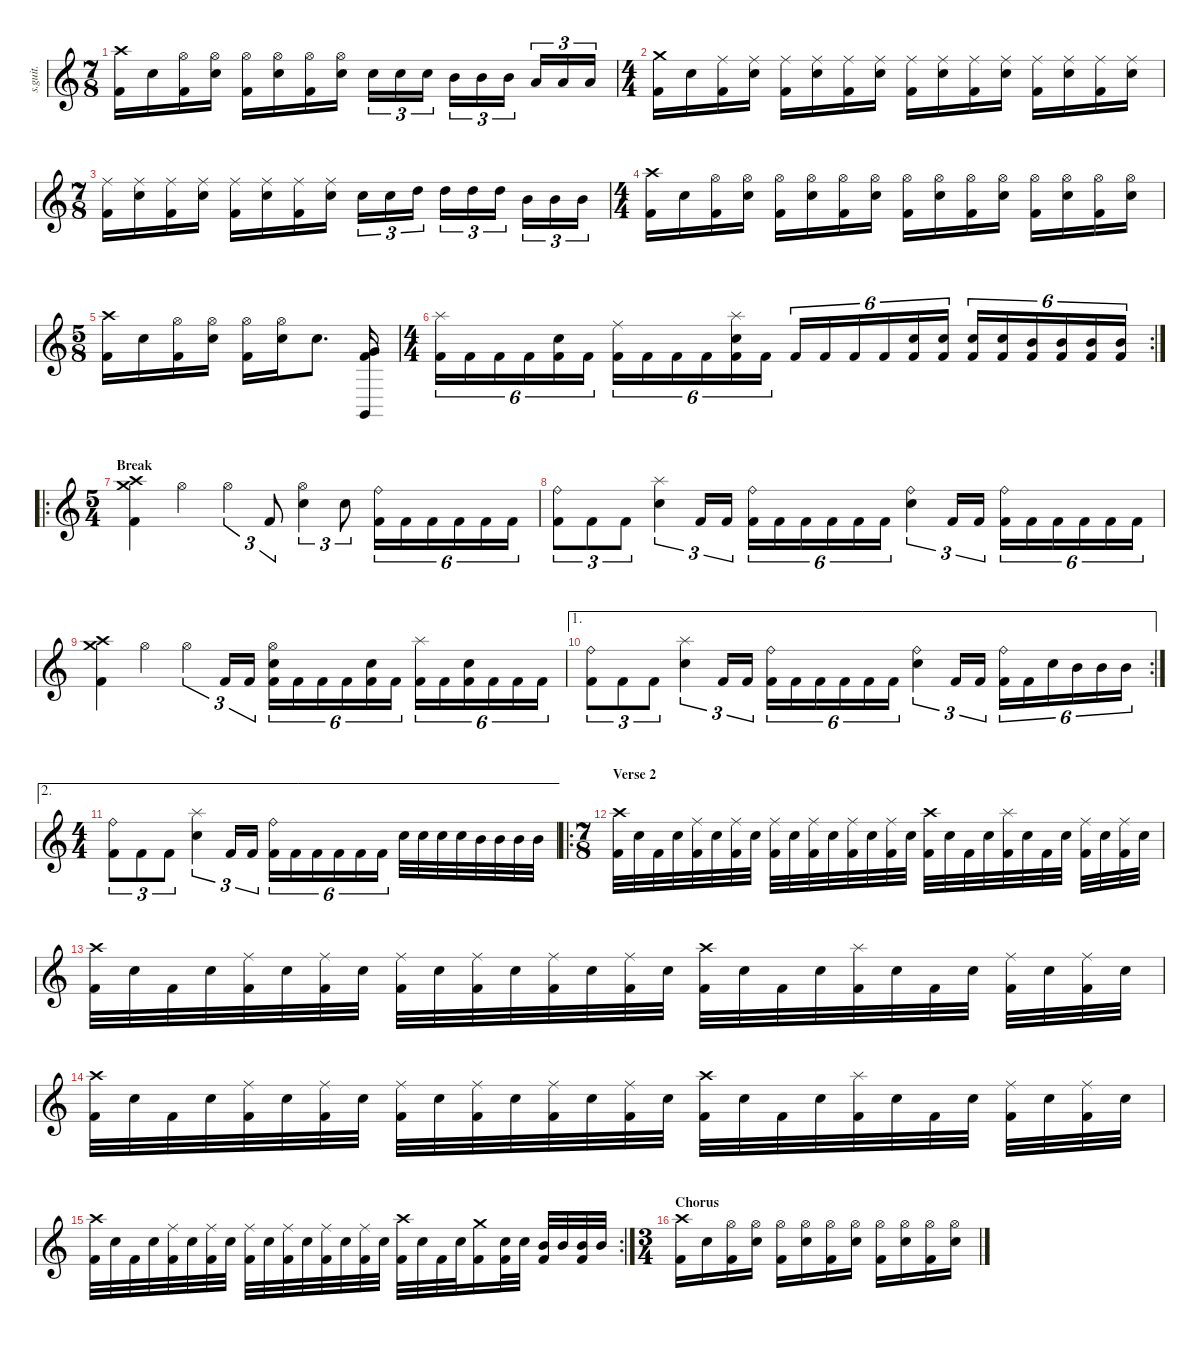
\defaultSystemsLayout 4
\hideDynamics
\bracketExtendMode nobrackets
\track ("Percussion" "s.guit.") {instrument percussion}
\staff {score}
\articulation defaults
\ts (7 8)
\beaming (8 2 2 2 2)
\tempo (120 hide)
\clef g2
\ks c
("Kick (hit) 2" "Crash high (hit)").16{lyrics (0 "") lyrics (1 "") lyrics (2 "") lyrics (3 "") lyrics (4 "") dy f} "Snare (hit) 2".16{lyrics (0 "") lyrics (1 "") lyrics (2 "") lyrics (3 "") lyrics (4 "")} ("Hi-Hat (open)" "Kick (hit) 2").16{lyrics (0 "") lyrics (1 "") lyrics (2 "") lyrics (3 "") lyrics (4 "")} ("Hi-Hat (open)" "Snare (hit) 2").16{lyrics (0 "") lyrics (1 "") lyrics (2 "") lyrics (3 "") lyrics (4 "")} ("Hi-Hat (open)" "Kick (hit) 2").16{lyrics (0 "") lyrics (1 "") lyrics (2 "") lyrics (3 "") lyrics (4 "")} ("Hi-Hat (open)" "Snare (hit) 2").16{lyrics (0 "") lyrics (1 "") lyrics (2 "") lyrics (3 "") lyrics (4 "")} ("Hi-Hat (open)" "Kick (hit) 2").16{lyrics (0 "") lyrics (1 "") lyrics (2 "") lyrics (3 "") lyrics (4 "")} ("Hi-Hat (open)" "Snare (hit) 2").16{lyrics (0 "") lyrics (1 "") lyrics (2 "") lyrics (3 "") lyrics (4 "")} "Snare (hit) 2".16{tu (3 2) lyrics (0 "") lyrics (1 "") lyrics (2 "") lyrics (3 "") lyrics (4 "")} "Snare (hit) 2".16{tu (3 2) lyrics (0 "") lyrics (1 "") lyrics (2 "") lyrics (3 "") lyrics (4 "")} "Snare (hit) 2".16{tu (3 2) lyrics (0 "") lyrics (1 "") lyrics (2 "") lyrics (3 "") lyrics (4 "")} "Mid Tom (hit)".16{tu (3 2) lyrics (0 "") lyrics (1 "") lyrics (2 "") lyrics (3 "") lyrics (4 "")} "Mid Tom (hit)".16{tu (3 2) lyrics (0 "") lyrics (1 "") lyrics (2 "") lyrics (3 "") lyrics (4 "")} "Mid Tom (hit)".16{tu (3 2) lyrics (0 "") lyrics (1 "") lyrics (2 "") lyrics (3 "") lyrics (4 "")} "Low Floor Tom (hit)".16{tu (3 2) lyrics (0 "") lyrics (1 "") lyrics (2 "") lyrics (3 "") lyrics (4 "")} "Low Floor Tom (hit)".16{tu (3 2) lyrics (0 "") lyrics (1 "") lyrics (2 "") lyrics (3 "") lyrics (4 "")} "Low Floor Tom (hit)".16{tu (3 2) lyrics (0 "") lyrics (1 "") lyrics (2 "") lyrics (3 "") lyrics (4 "")} |
\ts (4 4)
\beaming (8 2 2 2 2)
("Crash medium (hit)" "Kick (hit) 2").16{lyrics (0 "") lyrics (1 "") lyrics (2 "") lyrics (3 "") lyrics (4 "")} "Snare (hit) 2".16{lyrics (0 "") lyrics (1 "") lyrics (2 "") lyrics (3 "") lyrics (4 "")} ("Ride (middle)" "Kick (hit) 2").16{lyrics (0 "") lyrics (1 "") lyrics (2 "") lyrics (3 "") lyrics (4 "")} ("Ride (middle)" "Snare (hit) 2").16{lyrics (0 "") lyrics (1 "") lyrics (2 "") lyrics (3 "") lyrics (4 "")} ("Ride (middle)" "Kick (hit) 2").16{lyrics (0 "") lyrics (1 "") lyrics (2 "") lyrics (3 "") lyrics (4 "")} ("Snare (hit) 2" "Ride (middle)").16{lyrics (0 "") lyrics (1 "") lyrics (2 "") lyrics (3 "") lyrics (4 "")} ("Ride (middle)" "Kick (hit) 2").16{lyrics (0 "") lyrics (1 "") lyrics (2 "") lyrics (3 "") lyrics (4 "")} ("Ride (middle)" "Snare (hit) 2").16{lyrics (0 "") lyrics (1 "") lyrics (2 "") lyrics (3 "") lyrics (4 "")} ("Ride (middle)" "Kick (hit) 2").16{lyrics (0 "") lyrics (1 "") lyrics (2 "") lyrics (3 "") lyrics (4 "")} ("Ride (middle)" "Snare (hit) 2").16{lyrics (0 "") lyrics (1 "") lyrics (2 "") lyrics (3 "") lyrics (4 "")} ("Ride (middle)" "Kick (hit) 2").16{lyrics (0 "") lyrics (1 "") lyrics (2 "") lyrics (3 "") lyrics (4 "")} ("Ride (middle)" "Snare (hit) 2").16{lyrics (0 "") lyrics (1 "") lyrics (2 "") lyrics (3 "") lyrics (4 "")} ("Ride (middle)" "Kick (hit) 2").16{lyrics (0 "") lyrics (1 "") lyrics (2 "") lyrics (3 "") lyrics (4 "")} ("Ride (middle)" "Snare (hit) 2").16{lyrics (0 "") lyrics (1 "") lyrics (2 "") lyrics (3 "") lyrics (4 "")} ("Ride (middle)" "Kick (hit) 2").16{lyrics (0 "") lyrics (1 "") lyrics (2 "") lyrics (3 "") lyrics (4 "")} ("Ride (middle)" "Snare (hit) 2").16{lyrics (0 "") lyrics (1 "") lyrics (2 "") lyrics (3 "") lyrics (4 "")} |
\ts (7 8)
\beaming (8 2 2 2 2)
("Ride (middle)" "Kick (hit) 2").16{lyrics (0 "") lyrics (1 "") lyrics (2 "") lyrics (3 "") lyrics (4 "")} ("Ride (middle)" "Snare (hit) 2").16{lyrics (0 "") lyrics (1 "") lyrics (2 "") lyrics (3 "") lyrics (4 "")} ("Ride (middle)" "Kick (hit) 2").16{lyrics (0 "") lyrics (1 "") lyrics (2 "") lyrics (3 "") lyrics (4 "")} ("Ride (middle)" "Snare (hit) 2").16{lyrics (0 "") lyrics (1 "") lyrics (2 "") lyrics (3 "") lyrics (4 "")} ("Kick (hit) 2" "Ride (middle)").16{lyrics (0 "") lyrics (1 "") lyrics (2 "") lyrics (3 "") lyrics (4 "")} ("Ride (middle)" "Snare (hit) 2").16{lyrics (0 "") lyrics (1 "") lyrics (2 "") lyrics (3 "") lyrics (4 "")} ("Ride (middle)" "Kick (hit) 2").16{lyrics (0 "") lyrics (1 "") lyrics (2 "") lyrics (3 "") lyrics (4 "")} ("Ride (middle)" "Snare (hit) 2").16{lyrics (0 "") lyrics (1 "") lyrics (2 "") lyrics (3 "") lyrics (4 "")} "Snare (hit) 2".16{tu (3 2) lyrics (0 "") lyrics (1 "") lyrics (2 "") lyrics (3 "") lyrics (4 "")} "Snare (hit) 2".16{tu (3 2) lyrics (0 "") lyrics (1 "") lyrics (2 "") lyrics (3 "") lyrics (4 "")} "High Tom (hit)".16{tu (3 2) lyrics (0 "") lyrics (1 "") lyrics (2 "") lyrics (3 "") lyrics (4 "")} "High Tom (hit)".16{tu (3 2) lyrics (0 "") lyrics (1 "") lyrics (2 "") lyrics (3 "") lyrics (4 "")} "High Tom (hit)".16{tu (3 2) lyrics (0 "") lyrics (1 "") lyrics (2 "") lyrics (3 "") lyrics (4 "")} "High Tom (hit)".16{tu (3 2) lyrics (0 "") lyrics (1 "") lyrics (2 "") lyrics (3 "") lyrics (4 "")} "Mid Tom (hit)".16{tu (3 2) lyrics (0 "") lyrics (1 "") lyrics (2 "") lyrics (3 "") lyrics (4 "")} "Mid Tom (hit)".16{tu (3 2) lyrics (0 "") lyrics (1 "") lyrics (2 "") lyrics (3 "") lyrics (4 "")} "Mid Tom (hit)".16{tu (3 2) lyrics (0 "") lyrics (1 "") lyrics (2 "") lyrics (3 "") lyrics (4 "")} |
\ts (4 4)
\beaming (8 2 2 2 2)
("Kick (hit) 2" "Crash high (hit)").16{lyrics (0 "") lyrics (1 "") lyrics (2 "") lyrics (3 "") lyrics (4 "")} "Snare (hit) 2".16{lyrics (0 "") lyrics (1 "") lyrics (2 "") lyrics (3 "") lyrics (4 "")} ("Hi-Hat (open)" "Kick (hit) 2").16{lyrics (0 "") lyrics (1 "") lyrics (2 "") lyrics (3 "") lyrics (4 "")} ("Hi-Hat (open)" "Snare (hit) 2").16{lyrics (0 "") lyrics (1 "") lyrics (2 "") lyrics (3 "") lyrics (4 "")} ("Hi-Hat (open)" "Kick (hit) 2").16{lyrics (0 "") lyrics (1 "") lyrics (2 "") lyrics (3 "") lyrics (4 "")} ("Hi-Hat (open)" "Snare (hit) 2").16{lyrics (0 "") lyrics (1 "") lyrics (2 "") lyrics (3 "") lyrics (4 "")} ("Hi-Hat (open)" "Kick (hit) 2").16{lyrics (0 "") lyrics (1 "") lyrics (2 "") lyrics (3 "") lyrics (4 "")} ("Hi-Hat (open)" "Snare (hit) 2").16{lyrics (0 "") lyrics (1 "") lyrics (2 "") lyrics (3 "") lyrics (4 "")} ("Hi-Hat (open)" "Kick (hit) 2").16{lyrics (0 "") lyrics (1 "") lyrics (2 "") lyrics (3 "") lyrics (4 "")} ("Hi-Hat (open)" "Snare (hit) 2").16{lyrics (0 "") lyrics (1 "") lyrics (2 "") lyrics (3 "") lyrics (4 "")} ("Hi-Hat (open)" "Kick (hit) 2").16{lyrics (0 "") lyrics (1 "") lyrics (2 "") lyrics (3 "") lyrics (4 "")} ("Hi-Hat (open)" "Snare (hit) 2").16{lyrics (0 "") lyrics (1 "") lyrics (2 "") lyrics (3 "") lyrics (4 "")} ("Hi-Hat (open)" "Kick (hit) 2").16{lyrics (0 "") lyrics (1 "") lyrics (2 "") lyrics (3 "") lyrics (4 "")} ("Hi-Hat (open)" "Snare (hit) 2").16{lyrics (0 "") lyrics (1 "") lyrics (2 "") lyrics (3 "") lyrics (4 "")} ("Hi-Hat (open)" "Kick (hit) 2").16{lyrics (0 "") lyrics (1 "") lyrics (2 "") lyrics (3 "") lyrics (4 "")} ("Hi-Hat (open)" "Snare (hit) 2").16{lyrics (0 "") lyrics (1 "") lyrics (2 "") lyrics (3 "") lyrics (4 "")} |
\ts (5 8)
\beaming (8 2 2 2 2)
("Kick (hit) 2" "Crash high (hit)").16{lyrics (0 "") lyrics (1 "") lyrics (2 "") lyrics (3 "") lyrics (4 "")} "Snare (hit) 2".16{lyrics (0 "") lyrics (1 "") lyrics (2 "") lyrics (3 "") lyrics (4 "")} ("Hi-Hat (open)" "Kick (hit) 2").16{lyrics (0 "") lyrics (1 "") lyrics (2 "") lyrics (3 "") lyrics (4 "")} ("Hi-Hat (open)" "Snare (hit) 2").16{lyrics (0 "") lyrics (1 "") lyrics (2 "") lyrics (3 "") lyrics (4 "")} ("Hi-Hat (open)" "Kick (hit) 2").16{lyrics (0 "") lyrics (1 "") lyrics (2 "") lyrics (3 "") lyrics (4 "")} ("Hi-Hat (open)" "Snare (hit) 2").16{lyrics (0 "") lyrics (1 "") lyrics (2 "") lyrics (3 "") lyrics (4 "")} "Snare (hit) 2".8{d lyrics (0 "") lyrics (1 "") lyrics (2 "") lyrics (3 "") lyrics (4 "")} ("Very Low Tom (hit)" "Claves (hit)" "Kick (hit) 2").16{lyrics (0 "") lyrics (1 "") lyrics (2 "") lyrics (3 "") lyrics (4 "")} |
\rc 2
\ts (4 4)
\beaming (8 2 2 2 2)
("Splash (hit)" "Kick (hit) 2").16{tu (6 4) lyrics (0 "") lyrics (1 "") lyrics (2 "") lyrics (3 "") lyrics (4 "")} "Kick (hit) 2".16{tu (6 4) lyrics (0 "") lyrics (1 "") lyrics (2 "") lyrics (3 "") lyrics (4 "")} "Kick (hit) 2".16{tu (6 4) lyrics (0 "") lyrics (1 "") lyrics (2 "") lyrics (3 "") lyrics (4 "")} "Kick (hit) 2".16{tu (6 4) lyrics (0 "") lyrics (1 "") lyrics (2 "") lyrics (3 "") lyrics (4 "")} ("Snare (hit) 2" "Kick (hit) 2").16{tu (6 4) lyrics (0 "") lyrics (1 "") lyrics (2 "") lyrics (3 "") lyrics (4 "")} "Kick (hit) 2".16{tu (6 4) lyrics (0 "") lyrics (1 "") lyrics (2 "") lyrics (3 "") lyrics (4 "")} ("Ride (middle)" "Kick (hit) 2").16{tu (6 4) lyrics (0 "") lyrics (1 "") lyrics (2 "") lyrics (3 "") lyrics (4 "")} "Kick (hit) 2".16{tu (6 4) lyrics (0 "") lyrics (1 "") lyrics (2 "") lyrics (3 "") lyrics (4 "")} "Kick (hit) 2".16{tu (6 4) lyrics (0 "") lyrics (1 "") lyrics (2 "") lyrics (3 "") lyrics (4 "")} "Kick (hit) 2".16{tu (6 4) lyrics (0 "") lyrics (1 "") lyrics (2 "") lyrics (3 "") lyrics (4 "")} ("Splash (hit)" "Snare (hit) 2" "Kick (hit) 2").16{tu (6 4) lyrics (0 "") lyrics (1 "") lyrics (2 "") lyrics (3 "") lyrics (4 "")} "Kick (hit) 2".16{tu (6 4) lyrics (0 "") lyrics (1 "") lyrics (2 "") lyrics (3 "") lyrics (4 "")} "Kick (hit) 2".16{tu (6 4) lyrics (0 "") lyrics (1 "") lyrics (2 "") lyrics (3 "") lyrics (4 "")} "Kick (hit) 2".16{tu (6 4) lyrics (0 "") lyrics (1 "") lyrics (2 "") lyrics (3 "") lyrics (4 "")} "Kick (hit) 2".16{tu (6 4) lyrics (0 "") lyrics (1 "") lyrics (2 "") lyrics (3 "") lyrics (4 "")} "Kick (hit) 2".16{tu (6 4) lyrics (0 "") lyrics (1 "") lyrics (2 "") lyrics (3 "") lyrics (4 "")} ("Snare (hit) 2" "Kick (hit) 2").16{tu (6 4) lyrics (0 "") lyrics (1 "") lyrics (2 "") lyrics (3 "") lyrics (4 "")} ("Snare (hit) 2" "Kick (hit) 2").16{tu (6 4) lyrics (0 "") lyrics (1 "") lyrics (2 "") lyrics (3 "") lyrics (4 "")} ("Snare (hit) 2" "Kick (hit) 2").16{tu (6 4) lyrics (0 "") lyrics (1 "") lyrics (2 "") lyrics (3 "") lyrics (4 "")} ("Snare (hit) 2" "Kick (hit) 2").16{tu (6 4) lyrics (0 "") lyrics (1 "") lyrics (2 "") lyrics (3 "") lyrics (4 "")} ("Mid Tom (hit)" "Kick (hit) 2").16{tu (6 4) lyrics (0 "") lyrics (1 "") lyrics (2 "") lyrics (3 "") lyrics (4 "")} ("Mid Tom (hit)" "Kick (hit) 2").16{tu (6 4) lyrics (0 "") lyrics (1 "") lyrics (2 "") lyrics (3 "") lyrics (4 "")} ("Mid Tom (hit)" "Kick (hit) 2").16{tu (6 4) lyrics (0 "") lyrics (1 "") lyrics (2 "") lyrics (3 "") lyrics (4 "")} ("Mid Tom (hit)" "Kick (hit) 2").16{tu (6 4) lyrics (0 "") lyrics (1 "") lyrics (2 "") lyrics (3 "") lyrics (4 "")} |
\ro
\ts (5 4)
\beaming (8 2 2 2 2)
\section ("" "Break")
("Crash high (hit)" "Crash medium (hit)" "Kick (hit) 2").4{lyrics (0 "") lyrics (1 "") lyrics (2 "") lyrics (3 "") lyrics (4 "")} "Hi-Hat (open)".4{lyrics (0 "") lyrics (1 "") lyrics (2 "") lyrics (3 "") lyrics (4 "")} "Hi-Hat (open)".4{tu (3 2) lyrics (0 "") lyrics (1 "") lyrics (2 "") lyrics (3 "") lyrics (4 "")} "Kick (hit) 2".8{tu (3 2) lyrics (0 "") lyrics (1 "") lyrics (2 "") lyrics (3 "") lyrics (4 "")} ("Snare (hit) 2" "Hi-Hat (open)").4{tu (3 2) lyrics (0 "") lyrics (1 "") lyrics (2 "") lyrics (3 "") lyrics (4 "")} "Snare (hit) 2".8{tu (3 2) lyrics (0 "") lyrics (1 "") lyrics (2 "") lyrics (3 "") lyrics (4 "")} ("Ride (bell)" "Kick (hit) 2").16{tu (6 4) lyrics (0 "") lyrics (1 "") lyrics (2 "") lyrics (3 "") lyrics (4 "")} "Kick (hit) 2".16{tu (6 4) lyrics (0 "") lyrics (1 "") lyrics (2 "") lyrics (3 "") lyrics (4 "")} "Kick (hit) 2".16{tu (6 4) lyrics (0 "") lyrics (1 "") lyrics (2 "") lyrics (3 "") lyrics (4 "")} "Kick (hit) 2".16{tu (6 4) lyrics (0 "") lyrics (1 "") lyrics (2 "") lyrics (3 "") lyrics (4 "")} "Kick (hit) 2".16{tu (6 4) lyrics (0 "") lyrics (1 "") lyrics (2 "") lyrics (3 "") lyrics (4 "")} "Kick (hit) 2".16{tu (6 4) lyrics (0 "") lyrics (1 "") lyrics (2 "") lyrics (3 "") lyrics (4 "")} |
("Ride (bell)" "Kick (hit) 2").8{tu (3 2) lyrics (0 "") lyrics (1 "") lyrics (2 "") lyrics (3 "") lyrics (4 "")} "Kick (hit) 2".8{tu (3 2) lyrics (0 "") lyrics (1 "") lyrics (2 "") lyrics (3 "") lyrics (4 "")} "Kick (hit) 2".8{tu (3 2) lyrics (0 "") lyrics (1 "") lyrics (2 "") lyrics (3 "") lyrics (4 "")} ("Splash (hit)" "Snare (hit) 2").4{tu (3 2) lyrics (0 "") lyrics (1 "") lyrics (2 "") lyrics (3 "") lyrics (4 "")} "Kick (hit) 2".16{tu (3 2) lyrics (0 "") lyrics (1 "") lyrics (2 "") lyrics (3 "") lyrics (4 "")} "Kick (hit) 2".16{tu (3 2) lyrics (0 "") lyrics (1 "") lyrics (2 "") lyrics (3 "") lyrics (4 "")} ("Ride (bell)" "Kick (hit) 2").16{tu (6 4) lyrics (0 "") lyrics (1 "") lyrics (2 "") lyrics (3 "") lyrics (4 "")} "Kick (hit) 2".16{tu (6 4) lyrics (0 "") lyrics (1 "") lyrics (2 "") lyrics (3 "") lyrics (4 "")} "Kick (hit) 2".16{tu (6 4) lyrics (0 "") lyrics (1 "") lyrics (2 "") lyrics (3 "") lyrics (4 "")} "Kick (hit) 2".16{tu (6 4) lyrics (0 "") lyrics (1 "") lyrics (2 "") lyrics (3 "") lyrics (4 "")} "Kick (hit) 2".16{tu (6 4) lyrics (0 "") lyrics (1 "") lyrics (2 "") lyrics (3 "") lyrics (4 "")} "Kick (hit) 2".16{tu (6 4) lyrics (0 "") lyrics (1 "") lyrics (2 "") lyrics (3 "") lyrics (4 "")} ("Ride (bell)" "Snare (hit) 2").4{tu (3 2) lyrics (0 "") lyrics (1 "") lyrics (2 "") lyrics (3 "") lyrics (4 "")} "Kick (hit) 2".16{tu (3 2) lyrics (0 "") lyrics (1 "") lyrics (2 "") lyrics (3 "") lyrics (4 "")} "Kick (hit) 2".16{tu (3 2) lyrics (0 "") lyrics (1 "") lyrics (2 "") lyrics (3 "") lyrics (4 "")} ("Ride (bell)" "Kick (hit) 2").16{tu (6 4) lyrics (0 "") lyrics (1 "") lyrics (2 "") lyrics (3 "") lyrics (4 "")} "Kick (hit) 2".16{tu (6 4) lyrics (0 "") lyrics (1 "") lyrics (2 "") lyrics (3 "") lyrics (4 "")} "Kick (hit) 2".16{tu (6 4) lyrics (0 "") lyrics (1 "") lyrics (2 "") lyrics (3 "") lyrics (4 "")} "Kick (hit) 2".16{tu (6 4) lyrics (0 "") lyrics (1 "") lyrics (2 "") lyrics (3 "") lyrics (4 "")} "Kick (hit) 2".16{tu (6 4) lyrics (0 "") lyrics (1 "") lyrics (2 "") lyrics (3 "") lyrics (4 "")} "Kick (hit) 2".16{tu (6 4) lyrics (0 "") lyrics (1 "") lyrics (2 "") lyrics (3 "") lyrics (4 "")} |
("Crash high (hit)" "Crash medium (hit)" "Kick (hit) 2").4{lyrics (0 "") lyrics (1 "") lyrics (2 "") lyrics (3 "") lyrics (4 "")} "Hi-Hat (open)".4{lyrics (0 "") lyrics (1 "") lyrics (2 "") lyrics (3 "") lyrics (4 "")} "Hi-Hat (open)".4{tu (3 2) lyrics (0 "") lyrics (1 "") lyrics (2 "") lyrics (3 "") lyrics (4 "")} "Kick (hit) 2".16{tu (3 2) lyrics (0 "") lyrics (1 "") lyrics (2 "") lyrics (3 "") lyrics (4 "")} "Kick (hit) 2".16{tu (3 2) lyrics (0 "") lyrics (1 "") lyrics (2 "") lyrics (3 "") lyrics (4 "")} ("Hi-Hat (open)" "Snare (hit) 2" "Kick (hit) 2").16{tu (6 4) lyrics (0 "") lyrics (1 "") lyrics (2 "") lyrics (3 "") lyrics (4 "")} "Kick (hit) 2".16{tu (6 4) lyrics (0 "") lyrics (1 "") lyrics (2 "") lyrics (3 "") lyrics (4 "")} "Kick (hit) 2".16{tu (6 4) lyrics (0 "") lyrics (1 "") lyrics (2 "") lyrics (3 "") lyrics (4 "")} "Kick (hit) 2".16{tu (6 4) lyrics (0 "") lyrics (1 "") lyrics (2 "") lyrics (3 "") lyrics (4 "")} ("Snare (hit) 2" "Kick (hit) 2").16{tu (6 4) lyrics (0 "") lyrics (1 "") lyrics (2 "") lyrics (3 "") lyrics (4 "")} "Kick (hit) 2".16{tu (6 4) lyrics (0 "") lyrics (1 "") lyrics (2 "") lyrics (3 "") lyrics (4 "")} ("Splash (hit)" "Kick (hit) 2").16{tu (6 4) lyrics (0 "") lyrics (1 "") lyrics (2 "") lyrics (3 "") lyrics (4 "")} "Kick (hit) 2".16{tu (6 4) lyrics (0 "") lyrics (1 "") lyrics (2 "") lyrics (3 "") lyrics (4 "")} ("Snare (hit) 2" "Kick (hit) 2").16{tu (6 4) lyrics (0 "") lyrics (1 "") lyrics (2 "") lyrics (3 "") lyrics (4 "")} "Kick (hit) 2".16{tu (6 4) lyrics (0 "") lyrics (1 "") lyrics (2 "") lyrics (3 "") lyrics (4 "")} "Kick (hit) 2".16{tu (6 4) lyrics (0 "") lyrics (1 "") lyrics (2 "") lyrics (3 "") lyrics (4 "")} "Kick (hit) 2".16{tu (6 4) lyrics (0 "") lyrics (1 "") lyrics (2 "") lyrics (3 "") lyrics (4 "")} |
\ae 1
\rc 2
("Ride (bell)" "Kick (hit) 2").8{tu (3 2) lyrics (0 "") lyrics (1 "") lyrics (2 "") lyrics (3 "") lyrics (4 "")} "Kick (hit) 2".8{tu (3 2) lyrics (0 "") lyrics (1 "") lyrics (2 "") lyrics (3 "") lyrics (4 "")} "Kick (hit) 2".8{tu (3 2) lyrics (0 "") lyrics (1 "") lyrics (2 "") lyrics (3 "") lyrics (4 "")} ("Splash (hit)" "Snare (hit) 2").4{tu (3 2) lyrics (0 "") lyrics (1 "") lyrics (2 "") lyrics (3 "") lyrics (4 "")} "Kick (hit) 2".16{tu (3 2) lyrics (0 "") lyrics (1 "") lyrics (2 "") lyrics (3 "") lyrics (4 "")} "Kick (hit) 2".16{tu (3 2) lyrics (0 "") lyrics (1 "") lyrics (2 "") lyrics (3 "") lyrics (4 "")} ("Ride (bell)" "Kick (hit) 2").16{tu (6 4) lyrics (0 "") lyrics (1 "") lyrics (2 "") lyrics (3 "") lyrics (4 "")} "Kick (hit) 2".16{tu (6 4) lyrics (0 "") lyrics (1 "") lyrics (2 "") lyrics (3 "") lyrics (4 "")} "Kick (hit) 2".16{tu (6 4) lyrics (0 "") lyrics (1 "") lyrics (2 "") lyrics (3 "") lyrics (4 "")} "Kick (hit) 2".16{tu (6 4) lyrics (0 "") lyrics (1 "") lyrics (2 "") lyrics (3 "") lyrics (4 "")} "Kick (hit) 2".16{tu (6 4) lyrics (0 "") lyrics (1 "") lyrics (2 "") lyrics (3 "") lyrics (4 "")} "Kick (hit) 2".16{tu (6 4) lyrics (0 "") lyrics (1 "") lyrics (2 "") lyrics (3 "") lyrics (4 "")} ("Ride (bell)" "Snare (hit) 2").4{tu (3 2) lyrics (0 "") lyrics (1 "") lyrics (2 "") lyrics (3 "") lyrics (4 "")} "Kick (hit) 2".16{tu (3 2) lyrics (0 "") lyrics (1 "") lyrics (2 "") lyrics (3 "") lyrics (4 "")} "Kick (hit) 2".16{tu (3 2) lyrics (0 "") lyrics (1 "") lyrics (2 "") lyrics (3 "") lyrics (4 "")} ("Ride (bell)" "Kick (hit) 2").16{tu (6 4) lyrics (0 "") lyrics (1 "") lyrics (2 "") lyrics (3 "") lyrics (4 "")} "Kick (hit) 2".16{tu (6 4) lyrics (0 "") lyrics (1 "") lyrics (2 "") lyrics (3 "") lyrics (4 "")} "Snare (hit) 2".16{tu (6 4) lyrics (0 "") lyrics (1 "") lyrics (2 "") lyrics (3 "") lyrics (4 "")} "Mid Tom (hit)".16{tu (6 4) lyrics (0 "") lyrics (1 "") lyrics (2 "") lyrics (3 "") lyrics (4 "")} "Mid Tom (hit)".16{tu (6 4) lyrics (0 "") lyrics (1 "") lyrics (2 "") lyrics (3 "") lyrics (4 "")} "Mid Tom (hit)".16{tu (6 4) lyrics (0 "") lyrics (1 "") lyrics (2 "") lyrics (3 "") lyrics (4 "")} |
\ae 2
\ts (4 4)
\beaming (8 2 2 2 2)
("Ride (bell)" "Kick (hit) 2").8{tu (3 2) lyrics (0 "") lyrics (1 "") lyrics (2 "") lyrics (3 "") lyrics (4 "")} "Kick (hit) 2".8{tu (3 2) lyrics (0 "") lyrics (1 "") lyrics (2 "") lyrics (3 "") lyrics (4 "")} "Kick (hit) 2".8{tu (3 2) lyrics (0 "") lyrics (1 "") lyrics (2 "") lyrics (3 "") lyrics (4 "")} ("Splash (hit)" "Snare (hit) 2").4{tu (3 2) lyrics (0 "") lyrics (1 "") lyrics (2 "") lyrics (3 "") lyrics (4 "")} "Kick (hit) 2".16{tu (3 2) lyrics (0 "") lyrics (1 "") lyrics (2 "") lyrics (3 "") lyrics (4 "")} "Kick (hit) 2".16{tu (3 2) lyrics (0 "") lyrics (1 "") lyrics (2 "") lyrics (3 "") lyrics (4 "")} ("Ride (bell)" "Kick (hit) 2").16{tu (6 4) lyrics (0 "") lyrics (1 "") lyrics (2 "") lyrics (3 "") lyrics (4 "")} "Kick (hit) 2".16{tu (6 4) lyrics (0 "") lyrics (1 "") lyrics (2 "") lyrics (3 "") lyrics (4 "")} "Kick (hit) 2".16{tu (6 4) lyrics (0 "") lyrics (1 "") lyrics (2 "") lyrics (3 "") lyrics (4 "")} "Kick (hit) 2".16{tu (6 4) lyrics (0 "") lyrics (1 "") lyrics (2 "") lyrics (3 "") lyrics (4 "")} "Kick (hit) 2".16{tu (6 4) lyrics (0 "") lyrics (1 "") lyrics (2 "") lyrics (3 "") lyrics (4 "")} "Kick (hit) 2".16{tu (6 4) lyrics (0 "") lyrics (1 "") lyrics (2 "") lyrics (3 "") lyrics (4 "")} "Snare (hit) 2".32{lyrics (0 "") lyrics (1 "") lyrics (2 "") lyrics (3 "") lyrics (4 "")} "Snare (hit) 2".32{lyrics (0 "") lyrics (1 "") lyrics (2 "") lyrics (3 "") lyrics (4 "")} "Snare (hit) 2".32{lyrics (0 "") lyrics (1 "") lyrics (2 "") lyrics (3 "") lyrics (4 "")} "Snare (hit) 2".32{lyrics (0 "") lyrics (1 "") lyrics (2 "") lyrics (3 "") lyrics (4 "")} "Mid Tom (hit)".32{lyrics (0 "") lyrics (1 "") lyrics (2 "") lyrics (3 "") lyrics (4 "")} "Mid Tom (hit)".32{lyrics (0 "") lyrics (1 "") lyrics (2 "") lyrics (3 "") lyrics (4 "")} "Mid Tom (hit)".32{lyrics (0 "") lyrics (1 "") lyrics (2 "") lyrics (3 "") lyrics (4 "")} "Mid Tom (hit)".32{lyrics (0 "") lyrics (1 "") lyrics (2 "") lyrics (3 "") lyrics (4 "")} |
\ro
\ts (7 8)
\beaming (8 2 2 2 2)
\section ("" "Verse 2")
("Kick (hit) 2" "Crash high (hit)").32{lyrics (0 "") lyrics (1 "") lyrics (2 "") lyrics (3 "") lyrics (4 "")} "Snare (hit) 2".32{lyrics (0 "") lyrics (1 "") lyrics (2 "") lyrics (3 "") lyrics (4 "")} "Kick (hit) 2".32{lyrics (0 "") lyrics (1 "") lyrics (2 "") lyrics (3 "") lyrics (4 "")} "Snare (hit) 2".32{lyrics (0 "") lyrics (1 "") lyrics (2 "") lyrics (3 "") lyrics (4 "")} ("Ride (middle)" "Kick (hit) 2").32{lyrics (0 "") lyrics (1 "") lyrics (2 "") lyrics (3 "") lyrics (4 "")} "Snare (hit) 2".32{lyrics (0 "") lyrics (1 "") lyrics (2 "") lyrics (3 "") lyrics (4 "")} ("Ride (middle)" "Kick (hit) 2").32{lyrics (0 "") lyrics (1 "") lyrics (2 "") lyrics (3 "") lyrics (4 "")} "Snare (hit) 2".32{lyrics (0 "") lyrics (1 "") lyrics (2 "") lyrics (3 "") lyrics (4 "")} ("Ride (middle)" "Kick (hit) 2").32{lyrics (0 "") lyrics (1 "") lyrics (2 "") lyrics (3 "") lyrics (4 "")} "Snare (hit) 2".32{lyrics (0 "") lyrics (1 "") lyrics (2 "") lyrics (3 "") lyrics (4 "")} ("Ride (middle)" "Kick (hit) 2").32{lyrics (0 "") lyrics (1 "") lyrics (2 "") lyrics (3 "") lyrics (4 "")} "Snare (hit) 2".32{lyrics (0 "") lyrics (1 "") lyrics (2 "") lyrics (3 "") lyrics (4 "")} ("Ride (middle)" "Kick (hit) 2").32{lyrics (0 "") lyrics (1 "") lyrics (2 "") lyrics (3 "") lyrics (4 "")} "Snare (hit) 2".32{lyrics (0 "") lyrics (1 "") lyrics (2 "") lyrics (3 "") lyrics (4 "")} ("Ride (middle)" "Kick (hit) 2").32{lyrics (0 "") lyrics (1 "") lyrics (2 "") lyrics (3 "") lyrics (4 "")} "Snare (hit) 2".32{lyrics (0 "") lyrics (1 "") lyrics (2 "") lyrics (3 "") lyrics (4 "")} ("Kick (hit) 2" "Crash high (hit)").32{lyrics (0 "") lyrics (1 "") lyrics (2 "") lyrics (3 "") lyrics (4 "")} "Snare (hit) 2".32{lyrics (0 "") lyrics (1 "") lyrics (2 "") lyrics (3 "") lyrics (4 "")} "Kick (hit) 2".32{lyrics (0 "") lyrics (1 "") lyrics (2 "") lyrics (3 "") lyrics (4 "")} "Snare (hit) 2".32{lyrics (0 "") lyrics (1 "") lyrics (2 "") lyrics (3 "") lyrics (4 "")} ("Kick (hit) 2" "Splash (hit)").32{lyrics (0 "") lyrics (1 "") lyrics (2 "") lyrics (3 "") lyrics (4 "")} "Snare (hit) 2".32{lyrics (0 "") lyrics (1 "") lyrics (2 "") lyrics (3 "") lyrics (4 "")} "Kick (hit) 2".32{lyrics (0 "") lyrics (1 "") lyrics (2 "") lyrics (3 "") lyrics (4 "")} "Snare (hit) 2".32{lyrics (0 "") lyrics (1 "") lyrics (2 "") lyrics (3 "") lyrics (4 "")} ("Ride (middle)" "Kick (hit) 2").32{lyrics (0 "") lyrics (1 "") lyrics (2 "") lyrics (3 "") lyrics (4 "")} "Snare (hit) 2".32{lyrics (0 "") lyrics (1 "") lyrics (2 "") lyrics (3 "") lyrics (4 "")} ("Kick (hit) 2" "Ride (middle)").32{lyrics (0 "") lyrics (1 "") lyrics (2 "") lyrics (3 "") lyrics (4 "")} "Snare (hit) 2".32{lyrics (0 "") lyrics (1 "") lyrics (2 "") lyrics (3 "") lyrics (4 "")} |
("Kick (hit) 2" "Crash high (hit)").32{lyrics (0 "") lyrics (1 "") lyrics (2 "") lyrics (3 "") lyrics (4 "")} "Snare (hit) 2".32{lyrics (0 "") lyrics (1 "") lyrics (2 "") lyrics (3 "") lyrics (4 "")} "Kick (hit) 2".32{lyrics (0 "") lyrics (1 "") lyrics (2 "") lyrics (3 "") lyrics (4 "")} "Snare (hit) 2".32{lyrics (0 "") lyrics (1 "") lyrics (2 "") lyrics (3 "") lyrics (4 "")} ("Ride (middle)" "Kick (hit) 2").32{lyrics (0 "") lyrics (1 "") lyrics (2 "") lyrics (3 "") lyrics (4 "")} "Snare (hit) 2".32{lyrics (0 "") lyrics (1 "") lyrics (2 "") lyrics (3 "") lyrics (4 "")} ("Ride (middle)" "Kick (hit) 2").32{lyrics (0 "") lyrics (1 "") lyrics (2 "") lyrics (3 "") lyrics (4 "")} "Snare (hit) 2".32{lyrics (0 "") lyrics (1 "") lyrics (2 "") lyrics (3 "") lyrics (4 "")} ("Ride (middle)" "Kick (hit) 2").32{lyrics (0 "") lyrics (1 "") lyrics (2 "") lyrics (3 "") lyrics (4 "")} "Snare (hit) 2".32{lyrics (0 "") lyrics (1 "") lyrics (2 "") lyrics (3 "") lyrics (4 "")} ("Ride (middle)" "Kick (hit) 2").32{lyrics (0 "") lyrics (1 "") lyrics (2 "") lyrics (3 "") lyrics (4 "")} "Snare (hit) 2".32{lyrics (0 "") lyrics (1 "") lyrics (2 "") lyrics (3 "") lyrics (4 "")} ("Ride (middle)" "Kick (hit) 2").32{lyrics (0 "") lyrics (1 "") lyrics (2 "") lyrics (3 "") lyrics (4 "")} "Snare (hit) 2".32{lyrics (0 "") lyrics (1 "") lyrics (2 "") lyrics (3 "") lyrics (4 "")} ("Ride (middle)" "Kick (hit) 2").32{lyrics (0 "") lyrics (1 "") lyrics (2 "") lyrics (3 "") lyrics (4 "")} "Snare (hit) 2".32{lyrics (0 "") lyrics (1 "") lyrics (2 "") lyrics (3 "") lyrics (4 "")} ("Kick (hit) 2" "Crash high (hit)").32{lyrics (0 "") lyrics (1 "") lyrics (2 "") lyrics (3 "") lyrics (4 "")} "Snare (hit) 2".32{lyrics (0 "") lyrics (1 "") lyrics (2 "") lyrics (3 "") lyrics (4 "")} "Kick (hit) 2".32{lyrics (0 "") lyrics (1 "") lyrics (2 "") lyrics (3 "") lyrics (4 "")} "Snare (hit) 2".32{lyrics (0 "") lyrics (1 "") lyrics (2 "") lyrics (3 "") lyrics (4 "")} ("Kick (hit) 2" "Splash (hit)").32{lyrics (0 "") lyrics (1 "") lyrics (2 "") lyrics (3 "") lyrics (4 "")} "Snare (hit) 2".32{lyrics (0 "") lyrics (1 "") lyrics (2 "") lyrics (3 "") lyrics (4 "")} "Kick (hit) 2".32{lyrics (0 "") lyrics (1 "") lyrics (2 "") lyrics (3 "") lyrics (4 "")} "Snare (hit) 2".32{lyrics (0 "") lyrics (1 "") lyrics (2 "") lyrics (3 "") lyrics (4 "")} ("Ride (middle)" "Kick (hit) 2").32{lyrics (0 "") lyrics (1 "") lyrics (2 "") lyrics (3 "") lyrics (4 "")} "Snare (hit) 2".32{lyrics (0 "") lyrics (1 "") lyrics (2 "") lyrics (3 "") lyrics (4 "")} ("Kick (hit) 2" "Ride (middle)").32{lyrics (0 "") lyrics (1 "") lyrics (2 "") lyrics (3 "") lyrics (4 "")} "Snare (hit) 2".32{lyrics (0 "") lyrics (1 "") lyrics (2 "") lyrics (3 "") lyrics (4 "")} |
("Kick (hit) 2" "Crash high (hit)").32{lyrics (0 "") lyrics (1 "") lyrics (2 "") lyrics (3 "") lyrics (4 "")} "Snare (hit) 2".32{lyrics (0 "") lyrics (1 "") lyrics (2 "") lyrics (3 "") lyrics (4 "")} "Kick (hit) 2".32{lyrics (0 "") lyrics (1 "") lyrics (2 "") lyrics (3 "") lyrics (4 "")} "Snare (hit) 2".32{lyrics (0 "") lyrics (1 "") lyrics (2 "") lyrics (3 "") lyrics (4 "")} ("Ride (middle)" "Kick (hit) 2").32{lyrics (0 "") lyrics (1 "") lyrics (2 "") lyrics (3 "") lyrics (4 "")} "Snare (hit) 2".32{lyrics (0 "") lyrics (1 "") lyrics (2 "") lyrics (3 "") lyrics (4 "")} ("Ride (middle)" "Kick (hit) 2").32{lyrics (0 "") lyrics (1 "") lyrics (2 "") lyrics (3 "") lyrics (4 "")} "Snare (hit) 2".32{lyrics (0 "") lyrics (1 "") lyrics (2 "") lyrics (3 "") lyrics (4 "")} ("Ride (middle)" "Kick (hit) 2").32{lyrics (0 "") lyrics (1 "") lyrics (2 "") lyrics (3 "") lyrics (4 "")} "Snare (hit) 2".32{lyrics (0 "") lyrics (1 "") lyrics (2 "") lyrics (3 "") lyrics (4 "")} ("Ride (middle)" "Kick (hit) 2").32{lyrics (0 "") lyrics (1 "") lyrics (2 "") lyrics (3 "") lyrics (4 "")} "Snare (hit) 2".32{lyrics (0 "") lyrics (1 "") lyrics (2 "") lyrics (3 "") lyrics (4 "")} ("Ride (middle)" "Kick (hit) 2").32{lyrics (0 "") lyrics (1 "") lyrics (2 "") lyrics (3 "") lyrics (4 "")} "Snare (hit) 2".32{lyrics (0 "") lyrics (1 "") lyrics (2 "") lyrics (3 "") lyrics (4 "")} ("Ride (middle)" "Kick (hit) 2").32{lyrics (0 "") lyrics (1 "") lyrics (2 "") lyrics (3 "") lyrics (4 "")} "Snare (hit) 2".32{lyrics (0 "") lyrics (1 "") lyrics (2 "") lyrics (3 "") lyrics (4 "")} ("Kick (hit) 2" "Crash high (hit)").32{lyrics (0 "") lyrics (1 "") lyrics (2 "") lyrics (3 "") lyrics (4 "")} "Snare (hit) 2".32{lyrics (0 "") lyrics (1 "") lyrics (2 "") lyrics (3 "") lyrics (4 "")} "Kick (hit) 2".32{lyrics (0 "") lyrics (1 "") lyrics (2 "") lyrics (3 "") lyrics (4 "")} "Snare (hit) 2".32{lyrics (0 "") lyrics (1 "") lyrics (2 "") lyrics (3 "") lyrics (4 "")} ("Kick (hit) 2" "Splash (hit)").32{lyrics (0 "") lyrics (1 "") lyrics (2 "") lyrics (3 "") lyrics (4 "")} "Snare (hit) 2".32{lyrics (0 "") lyrics (1 "") lyrics (2 "") lyrics (3 "") lyrics (4 "")} "Kick (hit) 2".32{lyrics (0 "") lyrics (1 "") lyrics (2 "") lyrics (3 "") lyrics (4 "")} "Snare (hit) 2".32{lyrics (0 "") lyrics (1 "") lyrics (2 "") lyrics (3 "") lyrics (4 "")} ("Ride (middle)" "Kick (hit) 2").32{lyrics (0 "") lyrics (1 "") lyrics (2 "") lyrics (3 "") lyrics (4 "")} "Snare (hit) 2".32{lyrics (0 "") lyrics (1 "") lyrics (2 "") lyrics (3 "") lyrics (4 "")} ("Kick (hit) 2" "Ride (middle)").32{lyrics (0 "") lyrics (1 "") lyrics (2 "") lyrics (3 "") lyrics (4 "")} "Snare (hit) 2".32{lyrics (0 "") lyrics (1 "") lyrics (2 "") lyrics (3 "") lyrics (4 "")} |
\rc 2
("Kick (hit) 2" "Crash high (hit)").32{lyrics (0 "") lyrics (1 "") lyrics (2 "") lyrics (3 "") lyrics (4 "")} "Snare (hit) 2".32{lyrics (0 "") lyrics (1 "") lyrics (2 "") lyrics (3 "") lyrics (4 "")} "Kick (hit) 2".32{lyrics (0 "") lyrics (1 "") lyrics (2 "") lyrics (3 "") lyrics (4 "")} "Snare (hit) 2".32{lyrics (0 "") lyrics (1 "") lyrics (2 "") lyrics (3 "") lyrics (4 "")} ("Ride (middle)" "Kick (hit) 2").32{lyrics (0 "") lyrics (1 "") lyrics (2 "") lyrics (3 "") lyrics (4 "")} "Snare (hit) 2".32{lyrics (0 "") lyrics (1 "") lyrics (2 "") lyrics (3 "") lyrics (4 "")} ("Ride (middle)" "Kick (hit) 2").32{lyrics (0 "") lyrics (1 "") lyrics (2 "") lyrics (3 "") lyrics (4 "")} "Snare (hit) 2".32{lyrics (0 "") lyrics (1 "") lyrics (2 "") lyrics (3 "") lyrics (4 "")} ("Ride (middle)" "Kick (hit) 2").32{lyrics (0 "") lyrics (1 "") lyrics (2 "") lyrics (3 "") lyrics (4 "")} "Snare (hit) 2".32{lyrics (0 "") lyrics (1 "") lyrics (2 "") lyrics (3 "") lyrics (4 "")} ("Ride (middle)" "Kick (hit) 2").32{lyrics (0 "") lyrics (1 "") lyrics (2 "") lyrics (3 "") lyrics (4 "")} "Snare (hit) 2".32{lyrics (0 "") lyrics (1 "") lyrics (2 "") lyrics (3 "") lyrics (4 "")} ("Ride (middle)" "Kick (hit) 2").32{lyrics (0 "") lyrics (1 "") lyrics (2 "") lyrics (3 "") lyrics (4 "")} "Snare (hit) 2".32{lyrics (0 "") lyrics (1 "") lyrics (2 "") lyrics (3 "") lyrics (4 "")} ("Ride (middle)" "Kick (hit) 2").32{lyrics (0 "") lyrics (1 "") lyrics (2 "") lyrics (3 "") lyrics (4 "")} "Snare (hit) 2".32{lyrics (0 "") lyrics (1 "") lyrics (2 "") lyrics (3 "") lyrics (4 "")} ("Kick (hit) 2" "Crash high (hit)").32{lyrics (0 "") lyrics (1 "") lyrics (2 "") lyrics (3 "") lyrics (4 "")} "Snare (hit) 2".32{lyrics (0 "") lyrics (1 "") lyrics (2 "") lyrics (3 "") lyrics (4 "")} "Kick (hit) 2".32{lyrics (0 "") lyrics (1 "") lyrics (2 "") lyrics (3 "") lyrics (4 "")} "Snare (hit) 2".32{lyrics (0 "") lyrics (1 "") lyrics (2 "") lyrics (3 "") lyrics (4 "")} ("Crash medium (hit)" "Kick (hit) 2").16{lyrics (0 "") lyrics (1 "") lyrics (2 "") lyrics (3 "") lyrics (4 "")} ("Snare (hit) 2" "Kick (hit) 2").32{lyrics (0 "") lyrics (1 "") lyrics (2 "") lyrics (3 "") lyrics (4 "")} "Snare (hit) 2".32{lyrics (0 "") lyrics (1 "") lyrics (2 "") lyrics (3 "") lyrics (4 "")} ("Mid Tom (hit)" "Kick (hit) 2").32{lyrics (0 "") lyrics (1 "") lyrics (2 "") lyrics (3 "") lyrics (4 "")} "Mid Tom (hit)".32{lyrics (0 "") lyrics (1 "") lyrics (2 "") lyrics (3 "") lyrics (4 "")} ("Mid Tom (hit)" "Kick (hit) 2").32{lyrics (0 "") lyrics (1 "") lyrics (2 "") lyrics (3 "") lyrics (4 "")} "Mid Tom (hit)".32{lyrics (0 "") lyrics (1 "") lyrics (2 "") lyrics (3 "") lyrics (4 "")} |
\ts (3 4)
\beaming (8 2 2 2 2)
\section ("" "Chorus")
("Kick (hit) 2" "Crash high (hit)").16{lyrics (0 "") lyrics (1 "") lyrics (2 "") lyrics (3 "") lyrics (4 "")} "Snare (hit) 2".16{lyrics (0 "") lyrics (1 "") lyrics (2 "") lyrics (3 "") lyrics (4 "")} ("Hi-Hat (open)" "Kick (hit) 2").16{lyrics (0 "") lyrics (1 "") lyrics (2 "") lyrics (3 "") lyrics (4 "")} ("Hi-Hat (open)" "Snare (hit) 2").16{lyrics (0 "") lyrics (1 "") lyrics (2 "") lyrics (3 "") lyrics (4 "")} ("Hi-Hat (open)" "Kick (hit) 2").16{lyrics (0 "") lyrics (1 "") lyrics (2 "") lyrics (3 "") lyrics (4 "")} ("Hi-Hat (open)" "Snare (hit) 2").16{lyrics (0 "") lyrics (1 "") lyrics (2 "") lyrics (3 "") lyrics (4 "")} ("Hi-Hat (open)" "Kick (hit) 2").16{lyrics (0 "") lyrics (1 "") lyrics (2 "") lyrics (3 "") lyrics (4 "")} ("Hi-Hat (open)" "Snare (hit) 2").16{lyrics (0 "") lyrics (1 "") lyrics (2 "") lyrics (3 "") lyrics (4 "")} ("Hi-Hat (open)" "Kick (hit) 2").16{lyrics (0 "") lyrics (1 "") lyrics (2 "") lyrics (3 "") lyrics (4 "")} ("Hi-Hat (open)" "Snare (hit) 2").16{lyrics (0 "") lyrics (1 "") lyrics (2 "") lyrics (3 "") lyrics (4 "")} ("Hi-Hat (open)" "Kick (hit) 2").16{lyrics (0 "") lyrics (1 "") lyrics (2 "") lyrics (3 "") lyrics (4 "")} ("Hi-Hat (open)" "Snare (hit) 2").16{lyrics (0 "") lyrics (1 "") lyrics (2 "") lyrics (3 "") lyrics (4 "")}
